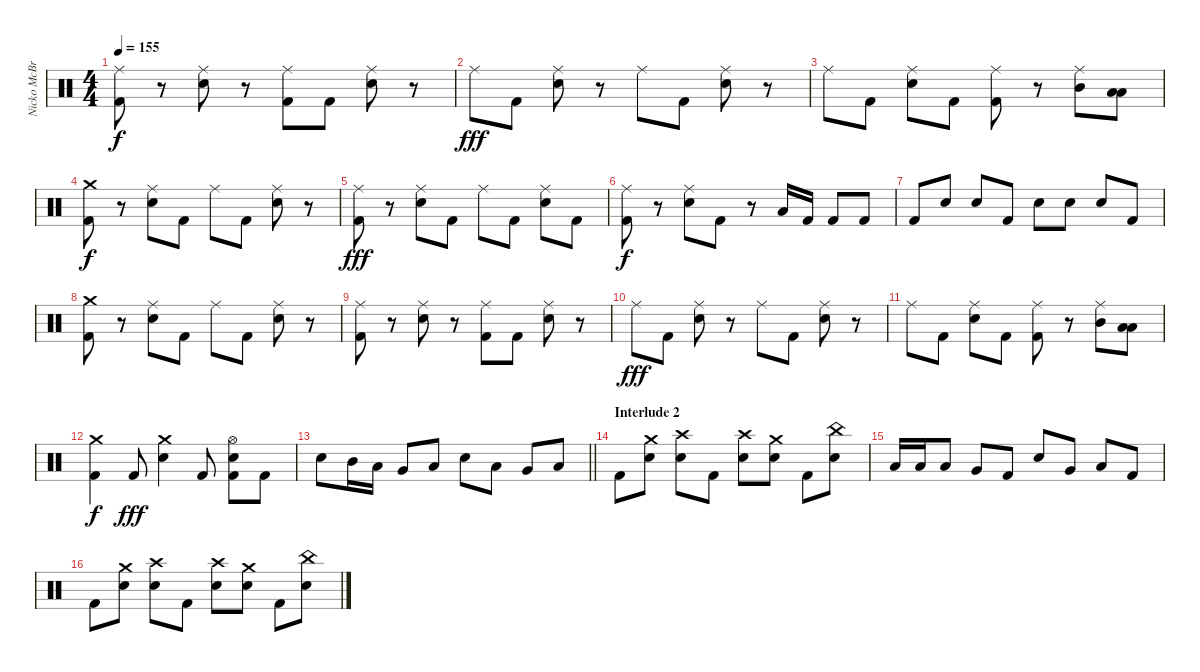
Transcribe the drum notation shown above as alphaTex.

\track ("Nicko McBrain" "Nicko McBr") {instrument percussion}
\staff {score}
\articulation defaults
\ts (4 4)
\tempo 155
\clef neutral
\ks c
("Ride (middle)" "Kick (hit) 2").8{dy f} r.8 ("Ride (middle)" "Snare (hit) 2").8 r.8 ("Ride (middle)" "Kick (hit) 2").8 "Kick (hit) 2".8 ("Ride (middle)" "Snare (hit) 2").8 r.8 |
"Ride (middle)".8{dy fff} "Kick (hit) 2".8 ("Ride (middle)" "Snare (hit) 2").8 r.8 "Ride (middle)".8 "Kick (hit) 2".8 ("Ride (middle)" "Snare (hit) 2").8 r.8 |
"Ride (middle)".8 "Kick (hit) 2".8 ("Ride (middle)" "Snare (hit) 2").8 "Kick (hit) 2".8 ("Ride (middle)" "Kick (hit) 2").8 r.8 ("Ride (middle)" "Mid Tom (hit)").8 ("Low Floor Tom (hit)" "Low Floor Tom (hit)").8 |
("Crash medium (hit)" "Kick (hit) 2").8{dy f} r.8 ("Ride (middle)" "Snare (hit) 2").8 "Kick (hit) 2".8 "Ride (middle)".8 "Kick (hit) 2".8 ("Ride (middle)" "Snare (hit) 2").8 r.8 |
("Ride (middle)" "Kick (hit) 2").8{dy fff} r.8 ("Ride (middle)" "Snare (hit) 2").8 "Kick (hit) 2".8 "Ride (middle)".8 "Kick (hit) 2".8 ("Ride (middle)" "Snare (hit) 2").8 "Kick (hit) 2".8 |
("Ride (middle)" "Kick (hit) 2").8{dy f} r.8 ("Ride (middle)" "Snare (hit) 2").8 "Kick (hit) 2".8 r.8 "Low Floor Tom (hit)".16 "Kick (hit) 2".16 "Kick (hit) 2".8 "Kick (hit) 2".8 |
"Kick (hit) 2".8 "Snare (hit) 2".8 "Snare (hit) 2".8 "Kick (hit) 2".8 "Snare (hit) 2".8 "Snare (hit) 2".8 "Snare (hit) 2".8 "Kick (hit) 2".8 |
("Crash medium (hit)" "Kick (hit) 2").8 r.8 ("Ride (middle)" "Snare (hit) 2").8 "Kick (hit) 2".8 "Ride (middle)".8 "Kick (hit) 2".8 ("Ride (middle)" "Snare (hit) 2").8 r.8 |
("Ride (middle)" "Kick (hit) 2").8 r.8 ("Ride (middle)" "Snare (hit) 2").8 r.8 ("Ride (middle)" "Kick (hit) 2").8 "Kick (hit) 2".8 ("Ride (middle)" "Snare (hit) 2").8 r.8 |
"Ride (middle)".8{dy fff} "Kick (hit) 2".8 ("Ride (middle)" "Snare (hit) 2").8 r.8 "Ride (middle)".8 "Kick (hit) 2".8 ("Ride (middle)" "Snare (hit) 2").8 r.8 |
"Ride (middle)".8 "Kick (hit) 2".8 ("Ride (middle)" "Snare (hit) 2").8 "Kick (hit) 2".8 ("Ride (middle)" "Kick (hit) 2").8 r.8 ("Ride (middle)" "Mid Tom (hit)").8 ("Low Floor Tom (hit)" "Low Floor Tom (hit)").8 |
("Crash medium (hit)" "Kick (hit) 2").4{dy f} "Kick (hit) 2".8{dy fff} ("Crash medium (hit)" "Snare (hit) 2").4 "Kick (hit) 2".8 ("Hi-Hat (open)" "Snare (hit) 2" "Kick (hit) 2").8 "Kick (hit) 2".8 |
\barLineRight lightlight "Snare (hit) 2".8 "Mid Tom (hit)".16 "Low Tom (hit)".16 "Very Low Tom (hit)".8 "Low Floor Tom (hit)".8 "Snare (hit) 2".8 "Low Tom (hit)".8 "Very Low Tom (hit)".8 "Low Floor Tom (hit)".8
|
\section ("" "Interlude 2")
"Kick (hit) 2".8 ("Crash medium (hit)" "Snare (hit) 2").8 ("Crash high (hit)" "Snare (hit) 2").8 "Kick (hit) 2".8 ("Crash high (hit)" "Snare (hit) 2").8 ("Crash medium (hit)" "Snare (hit) 2").8 "Kick (hit) 2".8 ("China (hit)" "Snare (hit) 2").8 |
"Low Floor Tom (hit)".16 "Low Floor Tom (hit)".16 "Low Floor Tom (hit)".8 "Very Low Tom (hit)".8 "Kick (hit) 2".8 "Snare (hit) 2".8 "Very Low Tom (hit)".8 "Low Floor Tom (hit)".8 "Kick (hit) 2".8 |
"Kick (hit) 2".8 ("Crash medium (hit)" "Snare (hit) 2").8 ("Crash high (hit)" "Snare (hit) 2").8 "Kick (hit) 2".8 ("Crash high (hit)" "Snare (hit) 2").8 ("Crash medium (hit)" "Snare (hit) 2").8 "Kick (hit) 2".8 ("China (hit)" "Snare (hit) 2").8
